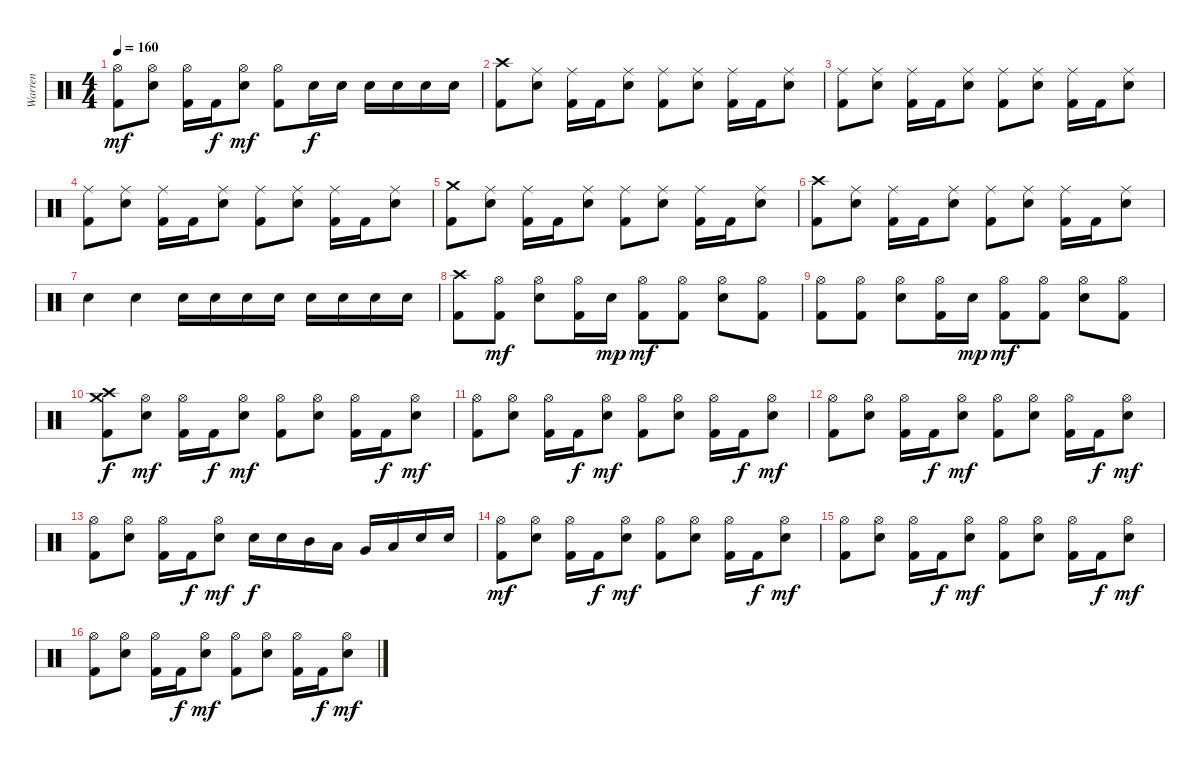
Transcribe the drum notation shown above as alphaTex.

\track ("Warren" "Warren") {instrument percussion}
\staff {score}
\articulation defaults
\ts (4 4)
\tempo 160
\clef neutral
\ks c
("Hi-Hat (open)" "Kick (hit) 2").8{dy mf} ("Hi-Hat (open)" "Electric Snare (hit)").8 ("Hi-Hat (open)" "Kick (hit) 2").16 "Kick (hit) 2".16{dy f} ("Hi-Hat (open)" "Electric Snare (hit)").8{dy mf} ("Hi-Hat (open)" "Kick (hit) 2").8 "Electric Snare (hit)".16{dy f} "Electric Snare (hit)".16 "Electric Snare (hit)".16 "Electric Snare (hit)".16 "Electric Snare (hit)".16 "Electric Snare (hit)".16 |
("Crash high (hit)" "Kick (hit) 2").8 ("Ride (middle)" "Electric Snare (hit)").8 ("Ride (middle)" "Kick (hit) 2").16 "Kick (hit) 2".16 ("Ride (middle)" "Electric Snare (hit)").8 ("Ride (middle)" "Kick (hit) 2").8 ("Ride (middle)" "Electric Snare (hit)").8 ("Ride (middle)" "Kick (hit) 2").16 "Kick (hit) 2".16 ("Ride (middle)" "Electric Snare (hit)").8 |
("Ride (middle)" "Kick (hit) 2").8 ("Ride (middle)" "Electric Snare (hit)").8 ("Ride (middle)" "Kick (hit) 2").16 "Kick (hit) 2".16 ("Ride (middle)" "Electric Snare (hit)").8 ("Ride (middle)" "Kick (hit) 2").8 ("Ride (middle)" "Electric Snare (hit)").8 ("Ride (middle)" "Kick (hit) 2").16 "Kick (hit) 2".16 ("Ride (middle)" "Electric Snare (hit)").8 |
("Ride (middle)" "Kick (hit) 2").8 ("Ride (middle)" "Electric Snare (hit)").8 ("Ride (middle)" "Kick (hit) 2").16 "Kick (hit) 2".16 ("Ride (middle)" "Electric Snare (hit)").8 ("Ride (middle)" "Kick (hit) 2").8 ("Ride (middle)" "Electric Snare (hit)").8 ("Ride (middle)" "Kick (hit) 2").16 "Kick (hit) 2".16 ("Ride (middle)" "Electric Snare (hit)").8 |
("Crash medium (hit)" "Kick (hit) 2").8 ("Ride (middle)" "Electric Snare (hit)").8 ("Ride (middle)" "Kick (hit) 2").16 "Kick (hit) 2".16 ("Ride (middle)" "Electric Snare (hit)").8 ("Ride (middle)" "Kick (hit) 2").8 ("Ride (middle)" "Electric Snare (hit)").8 ("Ride (middle)" "Kick (hit) 2").16 "Kick (hit) 2".16 ("Ride (middle)" "Electric Snare (hit)").8 |
("Crash high (hit)" "Kick (hit) 2").8 ("Ride (middle)" "Electric Snare (hit)").8 ("Ride (middle)" "Kick (hit) 2").16 "Kick (hit) 2".16 ("Ride (middle)" "Electric Snare (hit)").8 ("Ride (middle)" "Kick (hit) 2").8 ("Ride (middle)" "Electric Snare (hit)").8 ("Ride (middle)" "Kick (hit) 2").16 "Kick (hit) 2".16 ("Ride (middle)" "Electric Snare (hit)").8 |
"Electric Snare (hit)".4 "Electric Snare (hit)".4 "Electric Snare (hit)".16 "Electric Snare (hit)".16 "Electric Snare (hit)".16 "Electric Snare (hit)".16 "Electric Snare (hit)".16 "Electric Snare (hit)".16 "Electric Snare (hit)".16 "Electric Snare (hit)".16 |
("Crash high (hit)" "Kick (hit) 2").8 ("Hi-Hat (open)" "Kick (hit) 2").8{dy mf} ("Hi-Hat (open)" "Electric Snare (hit)").8 ("Hi-Hat (open)" "Kick (hit) 2").16 "Electric Snare (hit)".16{dy mp} ("Hi-Hat (open)" "Kick (hit) 2").8{dy mf} ("Hi-Hat (open)" "Kick (hit) 2").8 ("Hi-Hat (open)" "Electric Snare (hit)").8 ("Hi-Hat (open)" "Kick (hit) 2").8 |
("Hi-Hat (open)" "Kick (hit) 2").8 ("Hi-Hat (open)" "Kick (hit) 2").8 ("Hi-Hat (open)" "Electric Snare (hit)").8 ("Hi-Hat (open)" "Kick (hit) 2").16 "Electric Snare (hit)".16{dy mp} ("Hi-Hat (open)" "Kick (hit) 2").8{dy mf} ("Hi-Hat (open)" "Kick (hit) 2").8 ("Hi-Hat (open)" "Electric Snare (hit)").8 ("Hi-Hat (open)" "Kick (hit) 2").8 |
("Crash high (hit)" "Crash medium (hit)" "Kick (hit) 2").8{dy f} ("Hi-Hat (open)" "Electric Snare (hit)").8{dy mf} ("Hi-Hat (open)" "Kick (hit) 2").16 "Kick (hit) 2".16{dy f} ("Hi-Hat (open)" "Electric Snare (hit)").8{dy mf} ("Hi-Hat (open)" "Kick (hit) 2").8 ("Hi-Hat (open)" "Electric Snare (hit)").8 ("Hi-Hat (open)" "Kick (hit) 2").16 "Kick (hit) 2".16{dy f} ("Hi-Hat (open)" "Electric Snare (hit)").8{dy mf} |
("Hi-Hat (open)" "Kick (hit) 2").8 ("Hi-Hat (open)" "Electric Snare (hit)").8 ("Hi-Hat (open)" "Kick (hit) 2").16 "Kick (hit) 2".16{dy f} ("Hi-Hat (open)" "Electric Snare (hit)").8{dy mf} ("Hi-Hat (open)" "Kick (hit) 2").8 ("Hi-Hat (open)" "Electric Snare (hit)").8 ("Hi-Hat (open)" "Kick (hit) 2").16 "Kick (hit) 2".16{dy f} ("Hi-Hat (open)" "Electric Snare (hit)").8{dy mf} |
("Hi-Hat (open)" "Kick (hit) 2").8 ("Hi-Hat (open)" "Electric Snare (hit)").8 ("Hi-Hat (open)" "Kick (hit) 2").16 "Kick (hit) 2".16{dy f} ("Hi-Hat (open)" "Electric Snare (hit)").8{dy mf} ("Hi-Hat (open)" "Kick (hit) 2").8 ("Hi-Hat (open)" "Electric Snare (hit)").8 ("Hi-Hat (open)" "Kick (hit) 2").16 "Kick (hit) 2".16{dy f} ("Hi-Hat (open)" "Electric Snare (hit)").8{dy mf} |
("Hi-Hat (open)" "Kick (hit) 2").8 ("Hi-Hat (open)" "Electric Snare (hit)").8 ("Hi-Hat (open)" "Kick (hit) 2").16 "Kick (hit) 2".16{dy f} ("Hi-Hat (open)" "Electric Snare (hit)").8{dy mf} "Electric Snare (hit)".16{dy f} "Electric Snare (hit)".16 "Mid Tom (hit)".16 "Low Tom (hit)".16 "Very Low Tom (hit)".16 "Low Floor Tom (hit)".16 "Electric Snare (hit)".16 "Electric Snare (hit)".16 |
("Hi-Hat (open)" "Kick (hit) 2").8{dy mf} ("Hi-Hat (open)" "Electric Snare (hit)").8 ("Hi-Hat (open)" "Kick (hit) 2").16 "Kick (hit) 2".16{dy f} ("Hi-Hat (open)" "Electric Snare (hit)").8{dy mf} ("Hi-Hat (open)" "Kick (hit) 2").8 ("Hi-Hat (open)" "Electric Snare (hit)").8 ("Hi-Hat (open)" "Kick (hit) 2").16 "Kick (hit) 2".16{dy f} ("Hi-Hat (open)" "Electric Snare (hit)").8{dy mf} |
("Hi-Hat (open)" "Kick (hit) 2").8 ("Hi-Hat (open)" "Electric Snare (hit)").8 ("Hi-Hat (open)" "Kick (hit) 2").16 "Kick (hit) 2".16{dy f} ("Hi-Hat (open)" "Electric Snare (hit)").8{dy mf} ("Hi-Hat (open)" "Kick (hit) 2").8 ("Hi-Hat (open)" "Electric Snare (hit)").8 ("Hi-Hat (open)" "Kick (hit) 2").16 "Kick (hit) 2".16{dy f} ("Hi-Hat (open)" "Electric Snare (hit)").8{dy mf} |
("Hi-Hat (open)" "Kick (hit) 2").8 ("Hi-Hat (open)" "Electric Snare (hit)").8 ("Hi-Hat (open)" "Kick (hit) 2").16 "Kick (hit) 2".16{dy f} ("Hi-Hat (open)" "Electric Snare (hit)").8{dy mf} ("Hi-Hat (open)" "Kick (hit) 2").8 ("Hi-Hat (open)" "Electric Snare (hit)").8 ("Hi-Hat (open)" "Kick (hit) 2").16 "Kick (hit) 2".16{dy f} ("Hi-Hat (open)" "Electric Snare (hit)").8{dy mf}
